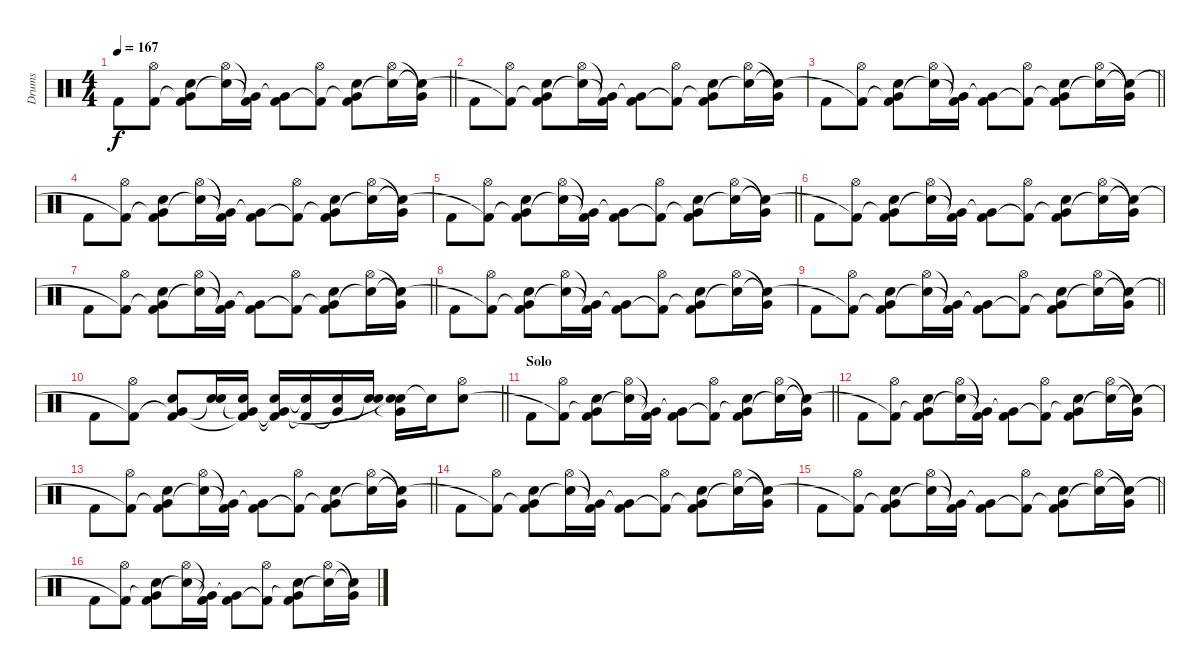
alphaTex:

\track ("Drums" "Drums") {instrument percussion}
\staff {score}
\articulation defaults
\ts (4 4)
\tempo 167
\clef neutral
\barLineRight lightlight
\ks c "Kick (hit) 2".8{dy f}
("Hi-Hat (open)" "Kick (hit) 2"{t}).8 ("Snare (hit) 2" "Very Low Tom (hit)"{t} "Kick (hit) 2").8 ("Hi-Hat (open)" "Snare (hit)"{t}).16 ("Very Low Tom (hit)"{t} "Kick (hit) 2"{t}).16 ("Very Low Tom (hit)"{t} "Kick (hit) 2").8 ("Hi-Hat (open)" "Kick (hit) 2"{t}).8 ("Snare (hit) 2" "Very Low Tom (hit)"{t} "Kick (hit) 2").8 ("Hi-Hat (open)" "Snare (hit)"{t}).16 ("Very Low Tom (hit)"{t} "Snare (hit)"{t}).16 |
"Kick (hit) 2".8 ("Hi-Hat (open)" "Kick (hit) 2"{t}).8 ("Snare (hit) 2" "Very Low Tom (hit)"{t} "Kick (hit) 2").8 ("Hi-Hat (open)" "Snare (hit)"{t}).16 ("Very Low Tom (hit)"{t} "Kick (hit) 2"{t}).16 ("Very Low Tom (hit)"{t} "Kick (hit) 2").8 ("Hi-Hat (open)" "Kick (hit) 2"{t}).8 ("Snare (hit) 2" "Very Low Tom (hit)"{t} "Kick (hit) 2").8 ("Hi-Hat (open)" "Snare (hit)"{t}).16 ("Very Low Tom (hit)"{t} "Snare (hit)"{t}).16 |
\barLineRight lightlight "Kick (hit) 2".8
("Hi-Hat (open)" "Kick (hit) 2"{t}).8 ("Snare (hit) 2" "Very Low Tom (hit)"{t} "Kick (hit) 2").8 ("Hi-Hat (open)" "Snare (hit)"{t}).16 ("Very Low Tom (hit)"{t} "Kick (hit) 2"{t}).16 ("Very Low Tom (hit)"{t} "Kick (hit) 2").8 ("Hi-Hat (open)" "Kick (hit) 2"{t}).8 ("Snare (hit) 2" "Very Low Tom (hit)"{t} "Kick (hit) 2").8 ("Hi-Hat (open)" "Snare (hit)"{t}).16 ("Very Low Tom (hit)"{t} "Snare (hit)"{t}).16 |
"Kick (hit) 2".8 ("Hi-Hat (open)" "Kick (hit) 2"{t}).8 ("Snare (hit) 2" "Very Low Tom (hit)"{t} "Kick (hit) 2").8 ("Hi-Hat (open)" "Snare (hit)"{t}).16 ("Very Low Tom (hit)"{t} "Kick (hit) 2"{t}).16 ("Very Low Tom (hit)"{t} "Kick (hit) 2").8 ("Hi-Hat (open)" "Kick (hit) 2"{t}).8 ("Snare (hit) 2" "Very Low Tom (hit)"{t} "Kick (hit) 2").8 ("Hi-Hat (open)" "Snare (hit)"{t}).16 ("Very Low Tom (hit)"{t} "Snare (hit)"{t}).16 |
\barLineRight lightlight "Kick (hit) 2".8
("Hi-Hat (open)" "Kick (hit) 2"{t}).8 ("Snare (hit) 2" "Very Low Tom (hit)"{t} "Kick (hit) 2").8 ("Hi-Hat (open)" "Snare (hit)"{t}).16 ("Very Low Tom (hit)"{t} "Kick (hit) 2"{t}).16 ("Very Low Tom (hit)"{t} "Kick (hit) 2").8 ("Hi-Hat (open)" "Kick (hit) 2"{t}).8 ("Snare (hit) 2" "Very Low Tom (hit)"{t} "Kick (hit) 2").8 ("Hi-Hat (open)" "Snare (hit)"{t}).16 ("Very Low Tom (hit)"{t} "Snare (hit)"{t}).16 |
"Kick (hit) 2".8 ("Hi-Hat (open)" "Kick (hit) 2"{t}).8 ("Snare (hit) 2" "Very Low Tom (hit)"{t} "Kick (hit) 2").8 ("Hi-Hat (open)" "Snare (hit)"{t}).16 ("Very Low Tom (hit)"{t} "Kick (hit) 2"{t}).16 ("Very Low Tom (hit)"{t} "Kick (hit) 2").8 ("Hi-Hat (open)" "Kick (hit) 2"{t}).8 ("Snare (hit) 2" "Very Low Tom (hit)"{t} "Kick (hit) 2").8 ("Hi-Hat (open)" "Snare (hit)"{t}).16 ("Very Low Tom (hit)"{t} "Snare (hit)"{t}).16 |
\barLineRight lightlight "Kick (hit) 2".8
("Hi-Hat (open)" "Kick (hit) 2"{t}).8 ("Snare (hit) 2" "Very Low Tom (hit)"{t} "Kick (hit) 2").8 ("Hi-Hat (open)" "Snare (hit)"{t}).16 ("Very Low Tom (hit)"{t} "Kick (hit) 2"{t}).16 ("Very Low Tom (hit)"{t} "Kick (hit) 2").8 ("Hi-Hat (open)" "Kick (hit) 2"{t}).8 ("Snare (hit) 2" "Very Low Tom (hit)"{t} "Kick (hit) 2").8 ("Hi-Hat (open)" "Snare (hit)"{t}).16 ("Very Low Tom (hit)"{t} "Snare (hit)"{t}).16 |
"Kick (hit) 2".8 ("Hi-Hat (open)" "Kick (hit) 2"{t}).8 ("Snare (hit) 2" "Very Low Tom (hit)"{t} "Kick (hit) 2").8 ("Hi-Hat (open)" "Snare (hit)"{t}).16 ("Very Low Tom (hit)"{t} "Kick (hit) 2"{t}).16 ("Very Low Tom (hit)"{t} "Kick (hit) 2").8 ("Hi-Hat (open)" "Kick (hit) 2"{t}).8 ("Snare (hit) 2" "Very Low Tom (hit)"{t} "Kick (hit) 2").8 ("Hi-Hat (open)" "Snare (hit)"{t}).16 ("Very Low Tom (hit)"{t} "Snare (hit)"{t}).16 |
\barLineRight lightlight "Kick (hit) 2".8
("Hi-Hat (open)" "Kick (hit) 2"{t}).8 ("Snare (hit) 2" "Very Low Tom (hit)"{t} "Kick (hit) 2").8 ("Hi-Hat (open)" "Snare (hit)"{t}).16 ("Very Low Tom (hit)"{t} "Kick (hit) 2"{t}).16 ("Very Low Tom (hit)"{t} "Kick (hit) 2").8 ("Hi-Hat (open)" "Kick (hit) 2"{t}).8 ("Snare (hit) 2" "Very Low Tom (hit)"{t} "Kick (hit) 2").8 ("Hi-Hat (open)" "Snare (hit)"{t}).16 ("Very Low Tom (hit)"{t} "Snare (hit)"{t}).16 |
\barLineRight lightlight "Kick (hit) 2".8
("Hi-Hat (open)" "Kick (hit) 2"{t}).8 ("Snare (hit) 2" "Very Low Tom (hit)"{t} "Kick (hit) 2").8 ("Snare (hit) 2" "Snare (hit)"{t}).16 ("Snare (hit) 2" "Very Low Tom (hit)"{t} "Kick (hit) 2"{t}).16 ("Snare (hit) 2" "Very Low Tom (hit)"{t} "Kick (hit) 2"{t}).16 ("Snare (hit) 2"{t} "Kick (hit) 2"{t}).16 ("Snare (hit) 2" "Very Low Tom (hit)"{t}).16 ("Snare (hit) 2" "Snare (hit)"{t}).16 ("Snare (hit) 2" "Very Low Tom (hit)"{t} "Snare (hit)"{t}).16 "Snare (hit) 2"{t}.16 ("Hi-Hat (open)" "Snare (hit) 2").8 |
\section ("" "Solo")
\barLineRight lightlight "Kick (hit) 2".8
("Hi-Hat (open)" "Kick (hit) 2"{t}).8 ("Snare (hit) 2" "Very Low Tom (hit)"{t} "Kick (hit) 2").8 ("Hi-Hat (open)" "Snare (hit)"{t}).16 ("Very Low Tom (hit)"{t} "Kick (hit) 2"{t}).16 ("Very Low Tom (hit)"{t} "Kick (hit) 2").8 ("Hi-Hat (open)" "Kick (hit) 2"{t}).8 ("Snare (hit) 2" "Very Low Tom (hit)"{t} "Kick (hit) 2").8 ("Hi-Hat (open)" "Snare (hit)"{t}).16 ("Very Low Tom (hit)"{t} "Snare (hit)"{t}).16 |
"Kick (hit) 2".8 ("Hi-Hat (open)" "Kick (hit) 2"{t}).8 ("Snare (hit) 2" "Very Low Tom (hit)"{t} "Kick (hit) 2").8 ("Hi-Hat (open)" "Snare (hit)"{t}).16 ("Very Low Tom (hit)"{t} "Kick (hit) 2"{t}).16 ("Very Low Tom (hit)"{t} "Kick (hit) 2").8 ("Hi-Hat (open)" "Kick (hit) 2"{t}).8 ("Snare (hit) 2" "Very Low Tom (hit)"{t} "Kick (hit) 2").8 ("Hi-Hat (open)" "Snare (hit)"{t}).16 ("Very Low Tom (hit)"{t} "Snare (hit)"{t}).16 |
\barLineRight lightlight "Kick (hit) 2".8
("Hi-Hat (open)" "Kick (hit) 2"{t}).8 ("Snare (hit) 2" "Very Low Tom (hit)"{t} "Kick (hit) 2").8 ("Hi-Hat (open)" "Snare (hit)"{t}).16 ("Very Low Tom (hit)"{t} "Kick (hit) 2"{t}).16 ("Very Low Tom (hit)"{t} "Kick (hit) 2").8 ("Hi-Hat (open)" "Kick (hit) 2"{t}).8 ("Snare (hit) 2" "Very Low Tom (hit)"{t} "Kick (hit) 2").8 ("Hi-Hat (open)" "Snare (hit)"{t}).16 ("Very Low Tom (hit)"{t} "Snare (hit)"{t}).16 |
"Kick (hit) 2".8 ("Hi-Hat (open)" "Kick (hit) 2"{t}).8 ("Snare (hit) 2" "Very Low Tom (hit)"{t} "Kick (hit) 2").8 ("Hi-Hat (open)" "Snare (hit)"{t}).16 ("Very Low Tom (hit)"{t} "Kick (hit) 2"{t}).16 ("Very Low Tom (hit)"{t} "Kick (hit) 2").8 ("Hi-Hat (open)" "Kick (hit) 2"{t}).8 ("Snare (hit) 2" "Very Low Tom (hit)"{t} "Kick (hit) 2").8 ("Hi-Hat (open)" "Snare (hit)"{t}).16 ("Very Low Tom (hit)"{t} "Snare (hit)"{t}).16 |
\barLineRight lightlight "Kick (hit) 2".8
("Hi-Hat (open)" "Kick (hit) 2"{t}).8 ("Snare (hit) 2" "Very Low Tom (hit)"{t} "Kick (hit) 2").8 ("Hi-Hat (open)" "Snare (hit)"{t}).16 ("Very Low Tom (hit)"{t} "Kick (hit) 2"{t}).16 ("Very Low Tom (hit)"{t} "Kick (hit) 2").8 ("Hi-Hat (open)" "Kick (hit) 2"{t}).8 ("Snare (hit) 2" "Very Low Tom (hit)"{t} "Kick (hit) 2").8 ("Hi-Hat (open)" "Snare (hit)"{t}).16 ("Very Low Tom (hit)"{t} "Snare (hit)"{t}).16 |
"Kick (hit) 2".8 ("Hi-Hat (open)" "Kick (hit) 2"{t}).8 ("Snare (hit) 2" "Very Low Tom (hit)"{t} "Kick (hit) 2").8 ("Hi-Hat (open)" "Snare (hit)"{t}).16 ("Very Low Tom (hit)"{t} "Kick (hit) 2"{t}).16 ("Very Low Tom (hit)"{t} "Kick (hit) 2").8 ("Hi-Hat (open)" "Kick (hit) 2"{t}).8 ("Snare (hit) 2" "Very Low Tom (hit)"{t} "Kick (hit) 2").8 ("Hi-Hat (open)" "Snare (hit)"{t}).16 ("Very Low Tom (hit)"{t} "Snare (hit)"{t}).16
